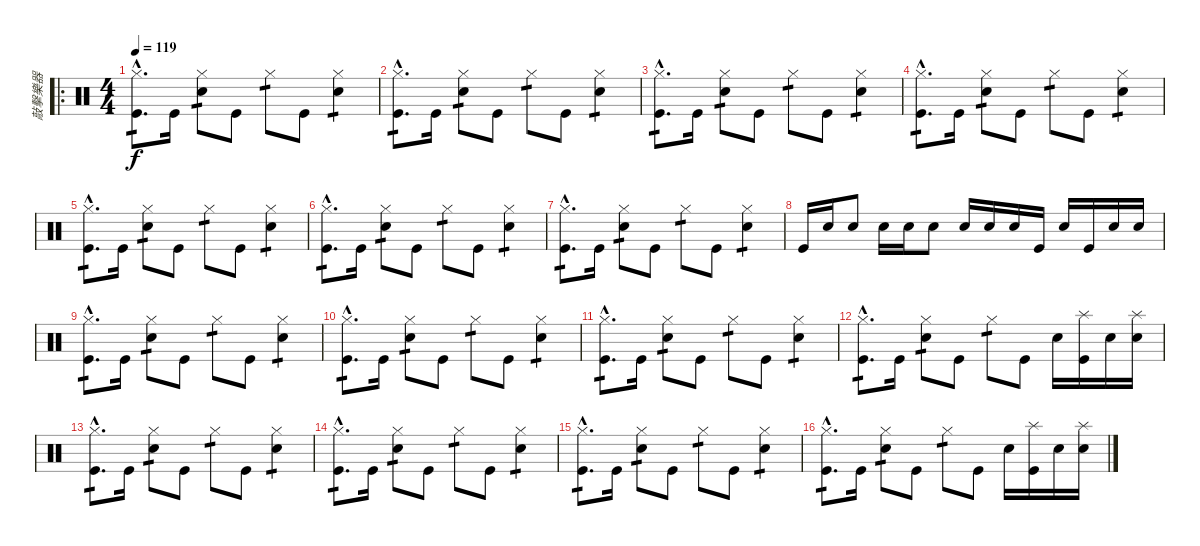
\track ("敲擊樂器" "敲擊樂器") {instrument percussion}
\staff {score}
\articulation defaults
\ro
\ts (4 4)
\tempo 119
\clef neutral
\ks c
("Hi-Hat (closed)"{hac} "Kick (hit)"{hac}).8{d tp 1 dy f} "Kick (hit)".16 ("Hi-Hat (closed)" "Electric Snare (hit)").8{tp 1} "Kick (hit)".8 "Hi-Hat (closed)".8{tp 1} "Kick (hit)".8 ("Hi-Hat (closed)" "Electric Snare (hit)").4{tp 1} |
("Hi-Hat (closed)"{hac} "Kick (hit)"{hac}).8{d tp 1} "Kick (hit)".16 ("Hi-Hat (closed)" "Electric Snare (hit)").8{tp 1} "Kick (hit)".8 "Hi-Hat (closed)".8{tp 1} "Kick (hit)".8 ("Hi-Hat (closed)" "Electric Snare (hit)").4{tp 1} |
("Hi-Hat (closed)"{hac} "Kick (hit)"{hac}).8{d tp 1} "Kick (hit)".16 ("Hi-Hat (closed)" "Electric Snare (hit)").8{tp 1} "Kick (hit)".8 "Hi-Hat (closed)".8{tp 1} "Kick (hit)".8 ("Hi-Hat (closed)" "Electric Snare (hit)").4{tp 1} |
("Hi-Hat (closed)"{hac} "Kick (hit)"{hac}).8{d tp 1} "Kick (hit)".16 ("Hi-Hat (closed)" "Electric Snare (hit)").8{tp 1} "Kick (hit)".8 "Hi-Hat (closed)".8{tp 1} "Kick (hit)".8 ("Hi-Hat (closed)" "Electric Snare (hit)").4{tp 1} |
("Hi-Hat (closed)"{hac} "Kick (hit)"{hac}).8{d tp 1} "Kick (hit)".16 ("Hi-Hat (closed)" "Electric Snare (hit)").8{tp 1} "Kick (hit)".8 "Hi-Hat (closed)".8{tp 1} "Kick (hit)".8 ("Hi-Hat (closed)" "Electric Snare (hit)").4{tp 1} |
("Hi-Hat (closed)"{hac} "Kick (hit)"{hac}).8{d tp 1} "Kick (hit)".16 ("Hi-Hat (closed)" "Electric Snare (hit)").8{tp 1} "Kick (hit)".8 "Hi-Hat (closed)".8{tp 1} "Kick (hit)".8 ("Hi-Hat (closed)" "Electric Snare (hit)").4{tp 1} |
("Hi-Hat (closed)"{hac} "Kick (hit)"{hac}).8{d tp 1} "Kick (hit)".16 ("Hi-Hat (closed)" "Electric Snare (hit)").8{tp 1} "Kick (hit)".8 "Hi-Hat (closed)".8{tp 1} "Kick (hit)".8 ("Hi-Hat (closed)" "Electric Snare (hit)").4{tp 1} |
"Kick (hit)".16 "Electric Snare (hit)".16 "Electric Snare (hit)".8 "Electric Snare (hit)".16 "Electric Snare (hit)".16 "Electric Snare (hit)".8 "Electric Snare (hit)".16 "Electric Snare (hit)".16 "Electric Snare (hit)".16 "Kick (hit)".16 "Electric Snare (hit)".16 "Kick (hit)".16 "Electric Snare (hit)".16 "Electric Snare (hit)".16 |
("Hi-Hat (closed)"{hac} "Kick (hit)"{hac}).8{d tp 1} "Kick (hit)".16 ("Hi-Hat (closed)" "Electric Snare (hit)").8{tp 1} "Kick (hit)".8 "Hi-Hat (closed)".8{tp 1} "Kick (hit)".8 ("Hi-Hat (closed)" "Electric Snare (hit)").4{tp 1} |
("Hi-Hat (closed)"{hac} "Kick (hit)"{hac}).8{d tp 1} "Kick (hit)".16 ("Hi-Hat (closed)" "Electric Snare (hit)").8{tp 1} "Kick (hit)".8 "Hi-Hat (closed)".8{tp 1} "Kick (hit)".8 ("Hi-Hat (closed)" "Electric Snare (hit)").4{tp 1} |
("Hi-Hat (closed)"{hac} "Kick (hit)"{hac}).8{d tp 1} "Kick (hit)".16 ("Hi-Hat (closed)" "Electric Snare (hit)").8{tp 1} "Kick (hit)".8 "Hi-Hat (closed)".8{tp 1} "Kick (hit)".8 ("Hi-Hat (closed)" "Electric Snare (hit)").4{tp 1} |
("Hi-Hat (closed)"{hac} "Kick (hit)"{hac}).8{d tp 1} "Kick (hit)".16 ("Hi-Hat (closed)" "Electric Snare (hit)").8{tp 1} "Kick (hit)".8 "Hi-Hat (closed)".8{tp 1} "Kick (hit)".8 "Electric Snare (hit)".16 ("Splash (hit)" "Kick (hit)").16 "Electric Snare (hit)".16 ("Splash (hit)" "Electric Snare (hit)").16 |
("Hi-Hat (closed)"{hac} "Kick (hit)"{hac}).8{d tp 1} "Kick (hit)".16 ("Hi-Hat (closed)" "Electric Snare (hit)").8{tp 1} "Kick (hit)".8 "Hi-Hat (closed)".8{tp 1} "Kick (hit)".8 ("Hi-Hat (closed)" "Electric Snare (hit)").4{tp 1} |
("Hi-Hat (closed)"{hac} "Kick (hit)"{hac}).8{d tp 1} "Kick (hit)".16 ("Hi-Hat (closed)" "Electric Snare (hit)").8{tp 1} "Kick (hit)".8 "Hi-Hat (closed)".8{tp 1} "Kick (hit)".8 ("Hi-Hat (closed)" "Electric Snare (hit)").4{tp 1} |
("Hi-Hat (closed)"{hac} "Kick (hit)"{hac}).8{d tp 1} "Kick (hit)".16 ("Hi-Hat (closed)" "Electric Snare (hit)").8{tp 1} "Kick (hit)".8 "Hi-Hat (closed)".8{tp 1} "Kick (hit)".8 ("Hi-Hat (closed)" "Electric Snare (hit)").4{tp 1} |
("Hi-Hat (closed)"{hac} "Kick (hit)"{hac}).8{d tp 1} "Kick (hit)".16 ("Hi-Hat (closed)" "Electric Snare (hit)").8{tp 1} "Kick (hit)".8 "Hi-Hat (closed)".8{tp 1} "Kick (hit)".8 "Electric Snare (hit)".16 ("Splash (hit)" "Kick (hit)").16 "Electric Snare (hit)".16 ("Splash (hit)" "Electric Snare (hit)").16
